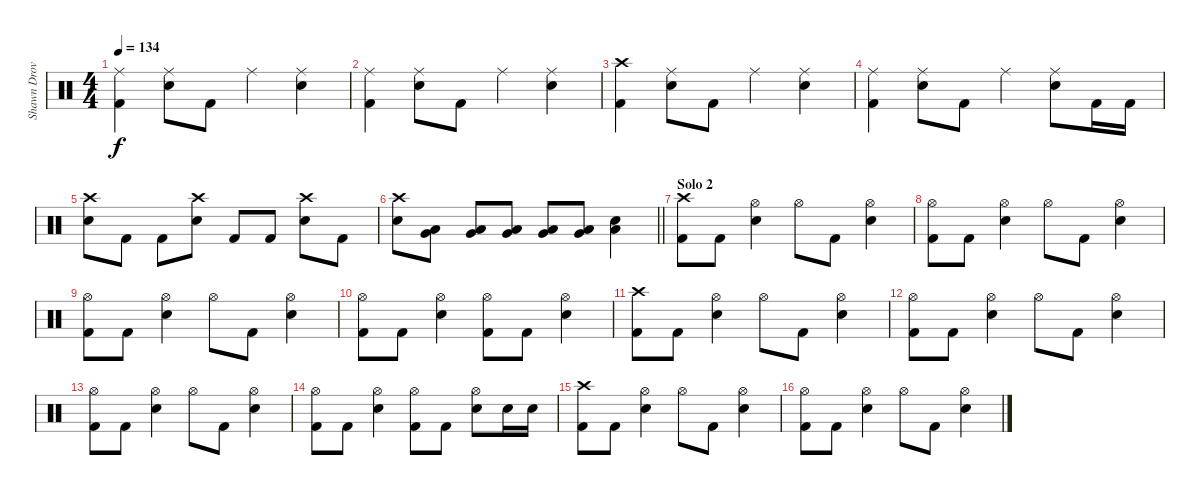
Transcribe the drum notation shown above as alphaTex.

\track ("Shawn Drover" "Shawn Drov") {instrument percussion}
\staff {score}
\articulation defaults
\ts (4 4)
\tempo 134
\clef neutral
\ks c
("Ride (middle)" "Kick (hit) 2").4{dy f} ("Ride (middle)" "Snare (hit) 2").8 "Kick (hit) 2".8 "Ride (middle)".4 ("Ride (middle)" "Snare (hit) 2").4 |
("Ride (middle)" "Kick (hit) 2").4 ("Ride (middle)" "Snare (hit) 2").8 "Kick (hit) 2".8 "Ride (middle)".4 ("Ride (middle)" "Snare (hit) 2").4 |
("Crash high (hit)" "Kick (hit) 2").4 ("Ride (middle)" "Snare (hit) 2").8 "Kick (hit) 2".8 "Ride (middle)".4 ("Ride (middle)" "Snare (hit) 2").4 |
("Ride (middle)" "Kick (hit) 2").4 ("Ride (middle)" "Snare (hit) 2").8 "Kick (hit) 2".8 "Ride (middle)".4 ("Ride (middle)" "Snare (hit) 2").8 "Kick (hit) 2".16 "Kick (hit) 2".16 |
("Crash high (hit)" "Snare (hit) 2").8 "Kick (hit) 2".8 "Kick (hit) 2".8 ("Crash high (hit)" "Snare (hit) 2").8 "Kick (hit) 2".8 "Kick (hit) 2".8 ("Crash high (hit)" "Snare (hit) 2").8 "Kick (hit) 2".8 |
\barLineRight lightlight
("Crash high (hit)" "Snare (hit) 2").8 ("Low Tom (hit)" "Very Low Tom (hit)").8 ("Low Tom (hit)" "Very Low Tom (hit)").8 ("Low Tom (hit)" "Very Low Tom (hit)").8 ("Very Low Tom (hit)" "Low Floor Tom (hit)").8 ("Very Low Tom (hit)" "Low Floor Tom (hit)").8 ("Low Floor Tom (hit)" "Snare (hit) 2").4 |
\section ("" "Solo 2")
("Crash high (hit)" "Kick (hit) 2").8 "Kick (hit) 2".8 ("Hi-Hat (open)" "Snare (hit) 2").4 "Hi-Hat (open)".8 "Kick (hit) 2".8 ("Hi-Hat (open)" "Snare (hit) 2").4 |
("Hi-Hat (open)" "Kick (hit) 2").8 "Kick (hit) 2".8 ("Hi-Hat (open)" "Snare (hit) 2").4 "Hi-Hat (open)".8 "Kick (hit) 2".8 ("Hi-Hat (open)" "Snare (hit) 2").4 |
("Hi-Hat (open)" "Kick (hit) 2").8 "Kick (hit) 2".8 ("Hi-Hat (open)" "Snare (hit) 2").4 "Hi-Hat (open)".8 "Kick (hit) 2".8 ("Hi-Hat (open)" "Snare (hit) 2").4 |
("Hi-Hat (open)" "Kick (hit) 2").8 "Kick (hit) 2".8 ("Hi-Hat (open)" "Snare (hit) 2").4 ("Hi-Hat (open)" "Kick (hit) 2").8 "Kick (hit) 2".8 ("Hi-Hat (open)" "Snare (hit) 2").4 |
("Crash high (hit)" "Kick (hit) 2").8 "Kick (hit) 2".8 ("Hi-Hat (open)" "Snare (hit) 2").4 "Hi-Hat (open)".8 "Kick (hit) 2".8 ("Hi-Hat (open)" "Snare (hit) 2").4 |
("Hi-Hat (open)" "Kick (hit) 2").8 "Kick (hit) 2".8 ("Hi-Hat (open)" "Snare (hit) 2").4 "Hi-Hat (open)".8 "Kick (hit) 2".8 ("Hi-Hat (open)" "Snare (hit) 2").4 |
("Hi-Hat (open)" "Kick (hit) 2").8 "Kick (hit) 2".8 ("Hi-Hat (open)" "Snare (hit) 2").4 "Hi-Hat (open)".8 "Kick (hit) 2".8 ("Hi-Hat (open)" "Snare (hit) 2").4 |
("Hi-Hat (open)" "Kick (hit) 2").8 "Kick (hit) 2".8 ("Hi-Hat (open)" "Snare (hit) 2").4 ("Hi-Hat (open)" "Kick (hit) 2").8 "Kick (hit) 2".8 ("Hi-Hat (open)" "Snare (hit) 2").8 "Snare (hit) 2".16 "Snare (hit) 2".16 |
("Crash high (hit)" "Kick (hit) 2").8 "Kick (hit) 2".8 ("Hi-Hat (open)" "Snare (hit) 2").4 "Hi-Hat (open)".8 "Kick (hit) 2".8 ("Hi-Hat (open)" "Snare (hit) 2").4 |
("Hi-Hat (open)" "Kick (hit) 2").8 "Kick (hit) 2".8 ("Hi-Hat (open)" "Snare (hit) 2").4 "Hi-Hat (open)".8 "Kick (hit) 2".8 ("Hi-Hat (open)" "Snare (hit) 2").4
